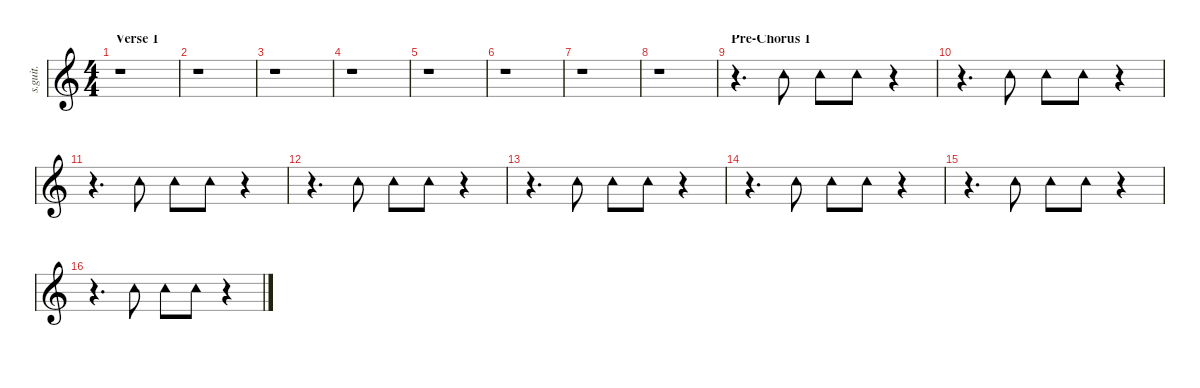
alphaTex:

\defaultSystemsLayout 4
\hideDynamics
\bracketExtendMode nobrackets
\track ("Tambourine" "s.guit.") {instrument percussion}
\staff {score}
\articulation defaults
\ts (4 4)
\section ("" "Verse 1")
\tempo (82 hide)
\clef g2
\ks c
r.1{dy ff} |
r.1 |
r.1 |
r.1 |
r.1 |
r.1 |
r.1 |
r.1 |
\section ("" "Pre-Chorus 1")
r.4{d} "Tambourine (hit)".8{lyrics (0 "") lyrics (1 "") lyrics (2 "") lyrics (3 "") lyrics (4 "")} "Tambourine (hit)".8{lyrics (0 "") lyrics (1 "") lyrics (2 "") lyrics (3 "") lyrics (4 "")} "Tambourine (hit)".8{lyrics (0 "") lyrics (1 "") lyrics (2 "") lyrics (3 "") lyrics (4 "")} r.4 |
r.4{d} "Tambourine (hit)".8{lyrics (0 "") lyrics (1 "") lyrics (2 "") lyrics (3 "") lyrics (4 "")} "Tambourine (hit)".8{lyrics (0 "") lyrics (1 "") lyrics (2 "") lyrics (3 "") lyrics (4 "")} "Tambourine (hit)".8{lyrics (0 "") lyrics (1 "") lyrics (2 "") lyrics (3 "") lyrics (4 "")} r.4 |
r.4{d} "Tambourine (hit)".8{lyrics (0 "") lyrics (1 "") lyrics (2 "") lyrics (3 "") lyrics (4 "")} "Tambourine (hit)".8{lyrics (0 "") lyrics (1 "") lyrics (2 "") lyrics (3 "") lyrics (4 "")} "Tambourine (hit)".8{lyrics (0 "") lyrics (1 "") lyrics (2 "") lyrics (3 "") lyrics (4 "")} r.4 |
r.4{d} "Tambourine (hit)".8{lyrics (0 "") lyrics (1 "") lyrics (2 "") lyrics (3 "") lyrics (4 "")} "Tambourine (hit)".8{lyrics (0 "") lyrics (1 "") lyrics (2 "") lyrics (3 "") lyrics (4 "")} "Tambourine (hit)".8{lyrics (0 "") lyrics (1 "") lyrics (2 "") lyrics (3 "") lyrics (4 "")} r.4 |
r.4{d} "Tambourine (hit)".8{lyrics (0 "") lyrics (1 "") lyrics (2 "") lyrics (3 "") lyrics (4 "")} "Tambourine (hit)".8{lyrics (0 "") lyrics (1 "") lyrics (2 "") lyrics (3 "") lyrics (4 "")} "Tambourine (hit)".8{lyrics (0 "") lyrics (1 "") lyrics (2 "") lyrics (3 "") lyrics (4 "")} r.4 |
r.4{d} "Tambourine (hit)".8{lyrics (0 "") lyrics (1 "") lyrics (2 "") lyrics (3 "") lyrics (4 "")} "Tambourine (hit)".8{lyrics (0 "") lyrics (1 "") lyrics (2 "") lyrics (3 "") lyrics (4 "")} "Tambourine (hit)".8{lyrics (0 "") lyrics (1 "") lyrics (2 "") lyrics (3 "") lyrics (4 "")} r.4 |
r.4{d} "Tambourine (hit)".8{lyrics (0 "") lyrics (1 "") lyrics (2 "") lyrics (3 "") lyrics (4 "")} "Tambourine (hit)".8{lyrics (0 "") lyrics (1 "") lyrics (2 "") lyrics (3 "") lyrics (4 "")} "Tambourine (hit)".8{lyrics (0 "") lyrics (1 "") lyrics (2 "") lyrics (3 "") lyrics (4 "")} r.4 |
r.4{d} "Tambourine (hit)".8{lyrics (0 "") lyrics (1 "") lyrics (2 "") lyrics (3 "") lyrics (4 "")} "Tambourine (hit)".8{lyrics (0 "") lyrics (1 "") lyrics (2 "") lyrics (3 "") lyrics (4 "")} "Tambourine (hit)".8{lyrics (0 "") lyrics (1 "") lyrics (2 "") lyrics (3 "") lyrics (4 "")} r.4
